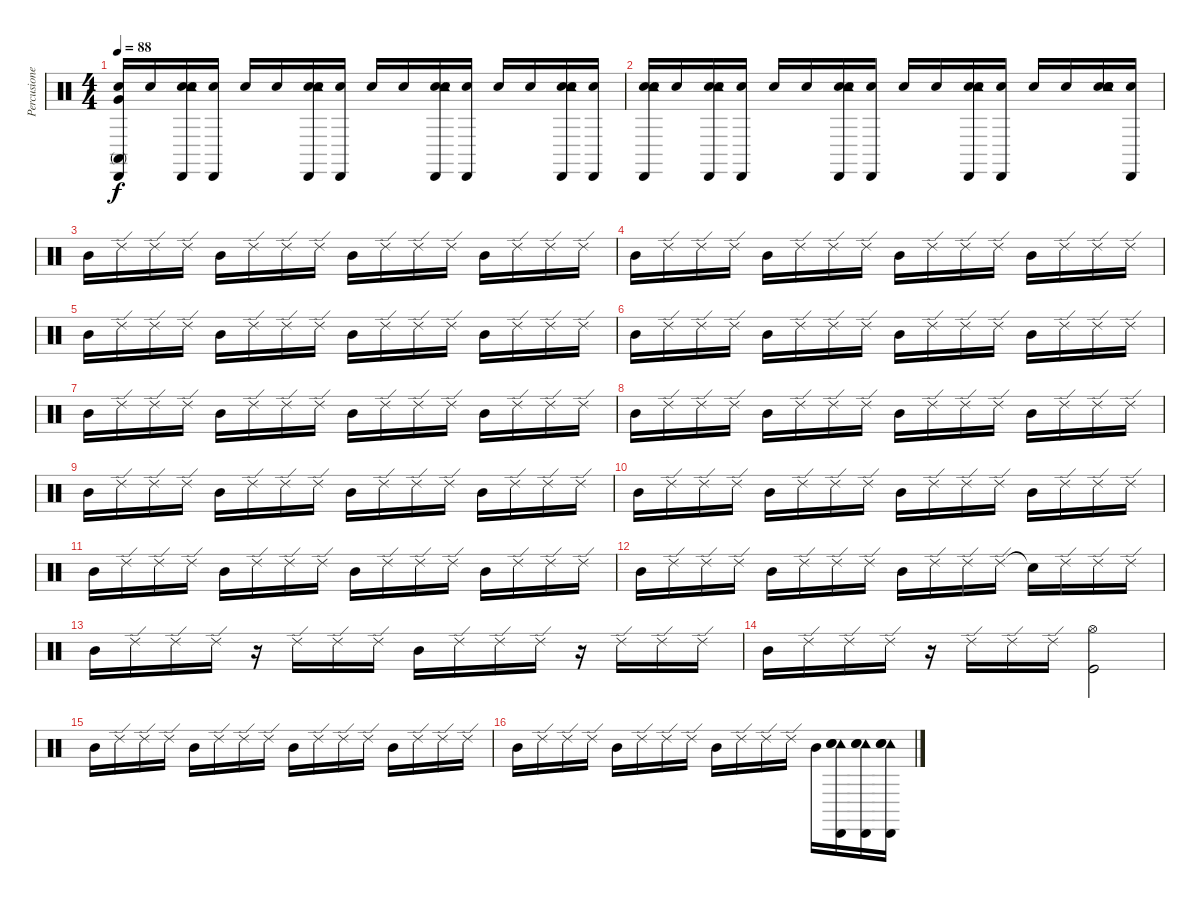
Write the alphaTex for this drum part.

\track ("Percusiones" "Percusione") {instrument percussion}
\staff {score}
\articulation defaults
\ts (4 4)
\tempo 88
\clef neutral
\ks c
("Electric Snare (hit)" "Conga high (mute)" "Cabasa (hit)" "Very Low Tom (hit)").16{dy f} "Electric Snare (hit)".16 ("Electric Snare (hit)" "Snare (hit) 2" "Cabasa (hit)" "Tambourine (hit)").16 ("Electric Snare (hit)" "Cabasa (hit)").16 "Electric Snare (hit)".16 "Electric Snare (hit)".16 ("Electric Snare (hit)" "Snare (hit) 2" "Cabasa (hit)" "Tambourine (hit)").16 ("Electric Snare (hit)" "Cabasa (hit)").16 "Electric Snare (hit)".16 "Electric Snare (hit)".16 ("Electric Snare (hit)" "Snare (hit) 2" "Cabasa (hit)" "Tambourine (hit)").16 ("Electric Snare (hit)" "Cabasa (hit)").16 "Electric Snare (hit)".16 "Electric Snare (hit)".16 ("Electric Snare (hit)" "Snare (hit) 2" "Cabasa (hit)" "Tambourine (hit)").16 ("Electric Snare (hit)" "Cabasa (hit)").16 |
("Electric Snare (hit)" "Snare (hit) 2" "Cabasa (hit)" "Tambourine (hit)").16 "Electric Snare (hit)".16 ("Electric Snare (hit)" "Snare (hit) 2" "Cabasa (hit)" "Tambourine (hit)").16 ("Electric Snare (hit)" "Cabasa (hit)").16 "Electric Snare (hit)".16 "Electric Snare (hit)".16 ("Electric Snare (hit)" "Snare (hit) 2" "Cabasa (hit)" "Tambourine (hit)").16 ("Electric Snare (hit)" "Cabasa (hit)").16 "Electric Snare (hit)".16 "Electric Snare (hit)".16 ("Electric Snare (hit)" "Snare (hit) 2" "Cabasa (hit)" "Tambourine (hit)").16 ("Electric Snare (hit)" "Cabasa (hit)").16 "Electric Snare (hit)".16 "Electric Snare (hit)".16 ("Electric Snare (hit)" "Snare (hit) 2" "Snare (hit) 2" "Tambourine (hit)").16 ("Electric Snare (hit)" "Cabasa (hit)").16 |
"Mid Tom (hit)".16 "Ride (edge) 2".16 "Ride (edge) 2".16 "Ride (edge) 2".16 "Mid Tom (hit)".16 "Ride (edge) 2".16 "Ride (edge) 2".16 "Ride (edge) 2".16 "Mid Tom (hit)".16 "Ride (edge) 2".16 "Ride (edge) 2".16 "Ride (edge) 2".16 "Mid Tom (hit)".16 "Ride (edge) 2".16 "Ride (edge) 2".16 "Ride (edge) 2".16 |
"Mid Tom (hit)".16 "Ride (edge) 2".16 "Ride (edge) 2".16 "Ride (edge) 2".16 "Mid Tom (hit)".16 "Ride (edge) 2".16 "Ride (edge) 2".16 "Ride (edge) 2".16 "Mid Tom (hit)".16 "Ride (edge) 2".16 "Ride (edge) 2".16 "Ride (edge) 2".16 "Mid Tom (hit)".16 "Ride (edge) 2".16 "Ride (edge) 2".16 "Ride (edge) 2".16 |
"Mid Tom (hit)".16 "Ride (edge) 2".16 "Ride (edge) 2".16 "Ride (edge) 2".16 "Mid Tom (hit)".16 "Ride (edge) 2".16 "Ride (edge) 2".16 "Ride (edge) 2".16 "Mid Tom (hit)".16 "Ride (edge) 2".16 "Ride (edge) 2".16 "Ride (edge) 2".16 "Mid Tom (hit)".16 "Ride (edge) 2".16 "Ride (edge) 2".16 "Ride (edge) 2".16 |
"Mid Tom (hit)".16 "Ride (edge) 2".16 "Ride (edge) 2".16 "Ride (edge) 2".16 "Mid Tom (hit)".16 "Ride (edge) 2".16 "Ride (edge) 2".16 "Ride (edge) 2".16 "Mid Tom (hit)".16 "Ride (edge) 2".16 "Ride (edge) 2".16 "Ride (edge) 2".16 "Mid Tom (hit)".16 "Ride (edge) 2".16 "Ride (edge) 2".16 "Ride (edge) 2".16 |
"Mid Tom (hit)".16 "Ride (edge) 2".16 "Ride (edge) 2".16 "Ride (edge) 2".16 "Mid Tom (hit)".16 "Ride (edge) 2".16 "Ride (edge) 2".16 "Ride (edge) 2".16 "Mid Tom (hit)".16 "Ride (edge) 2".16 "Ride (edge) 2".16 "Ride (edge) 2".16 "Mid Tom (hit)".16 "Ride (edge) 2".16 "Ride (edge) 2".16 "Ride (edge) 2".16 |
"Mid Tom (hit)".16 "Ride (edge) 2".16 "Ride (edge) 2".16 "Ride (edge) 2".16 "Mid Tom (hit)".16 "Ride (edge) 2".16 "Ride (edge) 2".16 "Ride (edge) 2".16 "Mid Tom (hit)".16 "Ride (edge) 2".16 "Ride (edge) 2".16 "Ride (edge) 2".16 "Mid Tom (hit)".16 "Ride (edge) 2".16 "Ride (edge) 2".16 "Ride (edge) 2".16 |
"Mid Tom (hit)".16 "Ride (edge) 2".16 "Ride (edge) 2".16 "Ride (edge) 2".16 "Mid Tom (hit)".16 "Ride (edge) 2".16 "Ride (edge) 2".16 "Ride (edge) 2".16 "Mid Tom (hit)".16 "Ride (edge) 2".16 "Ride (edge) 2".16 "Ride (edge) 2".16 "Mid Tom (hit)".16 "Ride (edge) 2".16 "Ride (edge) 2".16 "Ride (edge) 2".16 |
"Mid Tom (hit)".16 "Ride (edge) 2".16 "Ride (edge) 2".16 "Ride (edge) 2".16 "Mid Tom (hit)".16 "Ride (edge) 2".16 "Ride (edge) 2".16 "Ride (edge) 2".16 "Mid Tom (hit)".16 "Ride (edge) 2".16 "Ride (edge) 2".16 "Ride (edge) 2".16 "Mid Tom (hit)".16 "Ride (edge) 2".16 "Ride (edge) 2".16 "Ride (edge) 2".16 |
"Mid Tom (hit)".16 "Ride (edge) 2".16 "Ride (edge) 2".16 "Ride (edge) 2".16 "Mid Tom (hit)".16 "Ride (edge) 2".16 "Ride (edge) 2".16 "Ride (edge) 2".16 "Mid Tom (hit)".16 "Ride (edge) 2".16 "Ride (edge) 2".16 "Ride (edge) 2".16 "Mid Tom (hit)".16 "Ride (edge) 2".16 "Ride (edge) 2".16 "Ride (edge) 2".16 |
"Mid Tom (hit)".16 "Ride (edge) 2".16 "Ride (edge) 2".16 "Ride (edge) 2".16 "Mid Tom (hit)".16 "Ride (edge) 2".16 "Ride (edge) 2".16 "Ride (edge) 2".16 "Mid Tom (hit)".16 "Ride (edge) 2".16 "Ride (edge) 2".16 "Ride (edge) 2".16 "Snare (hit)"{t}.16 "Ride (edge) 2".16 "Ride (edge) 2".16 "Ride (edge) 2".16 |
"Mid Tom (hit)".16 "Ride (edge) 2".16 "Ride (edge) 2".16 "Ride (edge) 2".16 r.16 "Ride (edge) 2".16 "Ride (edge) 2".16 "Ride (edge) 2".16 "Mid Tom (hit)".16 "Ride (edge) 2".16 "Ride (edge) 2".16 "Ride (edge) 2".16 r.16 "Ride (edge) 2".16 "Ride (edge) 2".16 "Ride (edge) 2".16 |
"Mid Tom (hit)".16 "Ride (edge) 2".16 "Ride (edge) 2".16 "Ride (edge) 2".16 r.16 "Ride (edge) 2".16 "Ride (edge) 2".16 "Ride (edge) 2".16 ("Kick (hit)" "Hi-Hat (open)").2 |
"Mid Tom (hit)".16 "Ride (edge) 2".16 "Ride (edge) 2".16 "Ride (edge) 2".16 "Mid Tom (hit)".16 "Ride (edge) 2".16 "Ride (edge) 2".16 "Ride (edge) 2".16 "Mid Tom (hit)".16 "Ride (edge) 2".16 "Ride (edge) 2".16 "Ride (edge) 2".16 "Mid Tom (hit)".16 "Ride (edge) 2".16 "Ride (edge) 2".16 "Ride (edge) 2".16 |
"Mid Tom (hit)".16 "Ride (edge) 2".16 "Ride (edge) 2".16 "Ride (edge) 2".16 "Mid Tom (hit)".16 "Ride (edge) 2".16 "Ride (edge) 2".16 "Ride (edge) 2".16 "Mid Tom (hit)".16 "Ride (edge) 2".16 "Ride (edge) 2".16 "Ride (edge) 2".16 "Mid Tom (hit)".16 ("Tambourine (hit)" "Snare (hit) 2" "Electric Snare (hit)" "Cabasa (hit)").16 ("Tambourine (hit)" "Snare (hit) 2" "Electric Snare (hit)" "Cabasa (hit)").16 ("Tambourine (hit)" "Snare (hit) 2" "Electric Snare (hit)" "Cabasa (hit)").16
